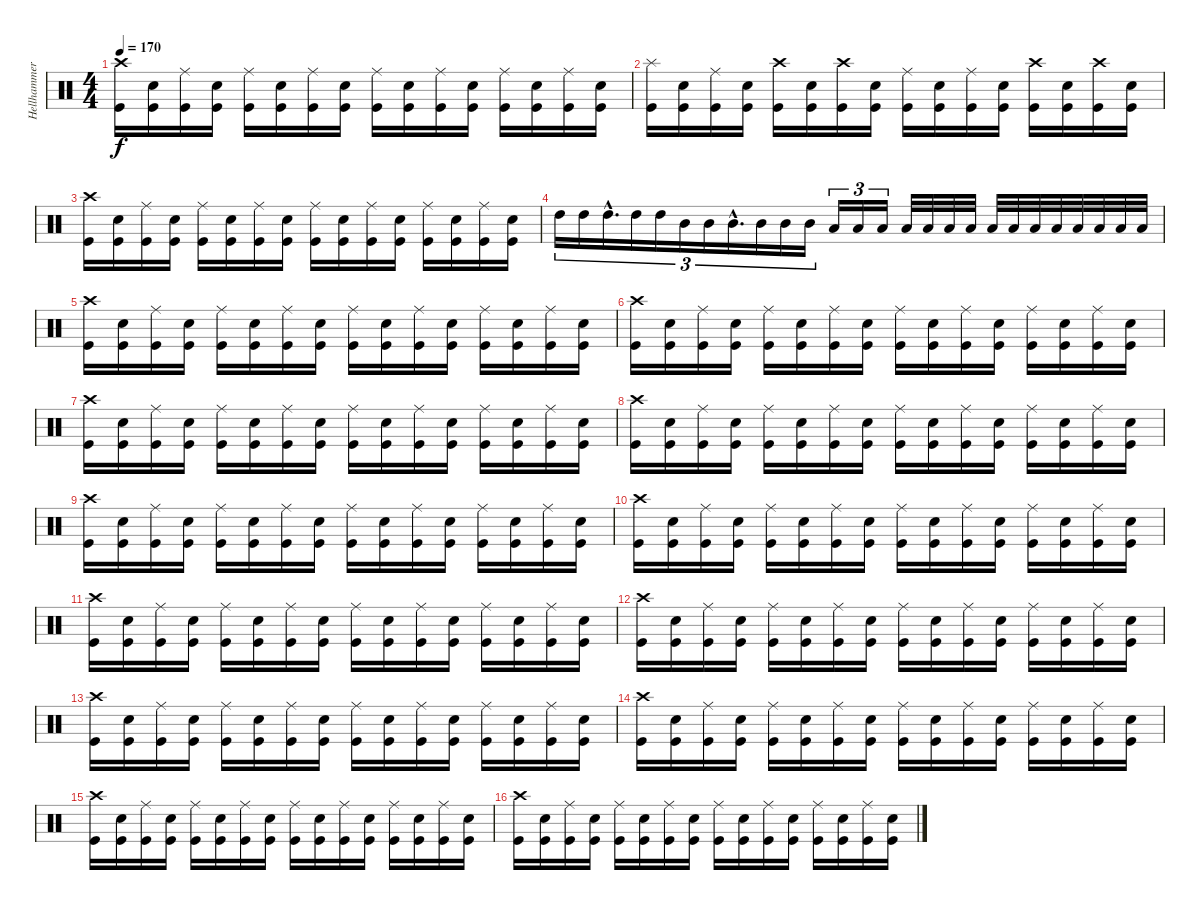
\track ("Hellhammer" "Hellhammer") {instrument percussion}
\staff {score}
\articulation defaults
\ts (4 4)
\tempo 170
\clef neutral
\ks c
("Crash high (hit)" "Kick (hit)").16{dy f} ("Electric Snare (hit)" "Kick (hit)").16 ("Ride (middle)" "Kick (hit)").16 ("Electric Snare (hit)" "Kick (hit)").16 ("Ride (middle)" "Kick (hit)").16 ("Electric Snare (hit)" "Kick (hit)").16 ("Ride (middle)" "Kick (hit)").16 ("Electric Snare (hit)" "Kick (hit)").16 ("Ride (middle)" "Kick (hit)").16 ("Electric Snare (hit)" "Kick (hit)").16 ("Ride (middle)" "Kick (hit)").16 ("Electric Snare (hit)" "Kick (hit)").16 ("Ride (middle)" "Kick (hit)").16 ("Electric Snare (hit)" "Kick (hit)").16 ("Ride (middle)" "Kick (hit)").16 ("Electric Snare (hit)" "Kick (hit)").16 |
("Splash (hit)" "Kick (hit)").16 ("Electric Snare (hit)" "Kick (hit)").16 ("Ride (middle)" "Kick (hit)").16 ("Electric Snare (hit)" "Kick (hit)").16 ("Crash high (hit)" "Kick (hit)").16 ("Electric Snare (hit)" "Kick (hit)").16 ("Crash high (hit)" "Kick (hit)").16 ("Electric Snare (hit)" "Kick (hit)").16 ("Ride (middle)" "Kick (hit)").16 ("Electric Snare (hit)" "Kick (hit)").16 ("Ride (middle)" "Kick (hit)").16 ("Electric Snare (hit)" "Kick (hit)").16 ("Crash high (hit)" "Kick (hit)").16 ("Electric Snare (hit)" "Kick (hit)").16 ("Crash high (hit)" "Kick (hit)").16 ("Electric Snare (hit)" "Kick (hit)").16 |
("Crash high (hit)" "Kick (hit)").16 ("Electric Snare (hit)" "Kick (hit)").16 ("Ride (middle)" "Kick (hit)").16 ("Electric Snare (hit)" "Kick (hit)").16 ("Ride (middle)" "Kick (hit)").16 ("Electric Snare (hit)" "Kick (hit)").16 ("Ride (middle)" "Kick (hit)").16 ("Electric Snare (hit)" "Kick (hit)").16 ("Ride (middle)" "Kick (hit)").16 ("Electric Snare (hit)" "Kick (hit)").16 ("Ride (middle)" "Kick (hit)").16 ("Electric Snare (hit)" "Kick (hit)").16 ("Ride (middle)" "Kick (hit)").16 ("Electric Snare (hit)" "Kick (hit)").16 ("Ride (middle)" "Kick (hit)").16 ("Electric Snare (hit)" "Kick (hit)").16 |
"High Tom (hit)".16{tu (3 2)} "High Tom (hit)".16{tu (3 2)} "High Tom (hit)"{hac}.16{d tu (3 2)} "High Tom (hit)".16{tu (3 2)} "High Tom (hit)".16{tu (3 2)} "Mid Tom (hit)".16{tu (3 2)} "Mid Tom (hit)".16{tu (3 2)} "Mid Tom (hit)"{hac}.16{d tu (3 2)} "Mid Tom (hit)".16{tu (3 2)} "Mid Tom (hit)".16{tu (3 2)} "Mid Tom (hit)".16{tu (3 2)} "Low Tom (hit)".16{tu (3 2)} "Low Tom (hit)".16{tu (3 2)} "Low Tom (hit)".16{tu (3 2)} "Low Tom (hit)".32 "Low Tom (hit)".32 "Low Tom (hit)".32 "Low Tom (hit)".32 "Low Tom (hit)".32 "Low Tom (hit)".32 "Low Tom (hit)".32 "Low Tom (hit)".32 "Low Tom (hit)".32 "Low Tom (hit)".32 "Low Tom (hit)".32 "Low Tom (hit)".32 |
("Crash high (hit)" "Kick (hit)").16 ("Electric Snare (hit)" "Kick (hit)").16 ("Ride (middle)" "Kick (hit)").16 ("Electric Snare (hit)" "Kick (hit)").16 ("Ride (middle)" "Kick (hit)").16 ("Electric Snare (hit)" "Kick (hit)").16 ("Ride (middle)" "Kick (hit)").16 ("Electric Snare (hit)" "Kick (hit)").16 ("Ride (middle)" "Kick (hit)").16 ("Electric Snare (hit)" "Kick (hit)").16 ("Ride (middle)" "Kick (hit)").16 ("Electric Snare (hit)" "Kick (hit)").16 ("Ride (middle)" "Kick (hit)").16 ("Electric Snare (hit)" "Kick (hit)").16 ("Ride (middle)" "Kick (hit)").16 ("Electric Snare (hit)" "Kick (hit)").16 |
("Crash high (hit)" "Kick (hit)").16 ("Electric Snare (hit)" "Kick (hit)").16 ("Ride (middle)" "Kick (hit)").16 ("Electric Snare (hit)" "Kick (hit)").16 ("Ride (middle)" "Kick (hit)").16 ("Electric Snare (hit)" "Kick (hit)").16 ("Ride (middle)" "Kick (hit)").16 ("Electric Snare (hit)" "Kick (hit)").16 ("Ride (middle)" "Kick (hit)").16 ("Electric Snare (hit)" "Kick (hit)").16 ("Ride (middle)" "Kick (hit)").16 ("Electric Snare (hit)" "Kick (hit)").16 ("Ride (middle)" "Kick (hit)").16 ("Electric Snare (hit)" "Kick (hit)").16 ("Ride (middle)" "Kick (hit)").16 ("Electric Snare (hit)" "Kick (hit)").16 |
("Crash high (hit)" "Kick (hit)").16 ("Electric Snare (hit)" "Kick (hit)").16 ("Ride (middle)" "Kick (hit)").16 ("Electric Snare (hit)" "Kick (hit)").16 ("Ride (middle)" "Kick (hit)").16 ("Electric Snare (hit)" "Kick (hit)").16 ("Ride (middle)" "Kick (hit)").16 ("Electric Snare (hit)" "Kick (hit)").16 ("Ride (middle)" "Kick (hit)").16 ("Electric Snare (hit)" "Kick (hit)").16 ("Ride (middle)" "Kick (hit)").16 ("Electric Snare (hit)" "Kick (hit)").16 ("Ride (middle)" "Kick (hit)").16 ("Electric Snare (hit)" "Kick (hit)").16 ("Ride (middle)" "Kick (hit)").16 ("Electric Snare (hit)" "Kick (hit)").16 |
("Crash high (hit)" "Kick (hit)").16 ("Electric Snare (hit)" "Kick (hit)").16 ("Ride (middle)" "Kick (hit)").16 ("Electric Snare (hit)" "Kick (hit)").16 ("Ride (middle)" "Kick (hit)").16 ("Electric Snare (hit)" "Kick (hit)").16 ("Ride (middle)" "Kick (hit)").16 ("Electric Snare (hit)" "Kick (hit)").16 ("Ride (middle)" "Kick (hit)").16 ("Electric Snare (hit)" "Kick (hit)").16 ("Ride (middle)" "Kick (hit)").16 ("Electric Snare (hit)" "Kick (hit)").16 ("Ride (middle)" "Kick (hit)").16 ("Electric Snare (hit)" "Kick (hit)").16 ("Ride (middle)" "Kick (hit)").16 ("Electric Snare (hit)" "Kick (hit)").16 |
("Crash high (hit)" "Kick (hit)").16 ("Electric Snare (hit)" "Kick (hit)").16 ("Ride (middle)" "Kick (hit)").16 ("Electric Snare (hit)" "Kick (hit)").16 ("Ride (middle)" "Kick (hit)").16 ("Electric Snare (hit)" "Kick (hit)").16 ("Ride (middle)" "Kick (hit)").16 ("Electric Snare (hit)" "Kick (hit)").16 ("Ride (middle)" "Kick (hit)").16 ("Electric Snare (hit)" "Kick (hit)").16 ("Ride (middle)" "Kick (hit)").16 ("Electric Snare (hit)" "Kick (hit)").16 ("Ride (middle)" "Kick (hit)").16 ("Electric Snare (hit)" "Kick (hit)").16 ("Ride (middle)" "Kick (hit)").16 ("Electric Snare (hit)" "Kick (hit)").16 |
("Crash high (hit)" "Kick (hit)").16 ("Electric Snare (hit)" "Kick (hit)").16 ("Ride (middle)" "Kick (hit)").16 ("Electric Snare (hit)" "Kick (hit)").16 ("Ride (middle)" "Kick (hit)").16 ("Electric Snare (hit)" "Kick (hit)").16 ("Ride (middle)" "Kick (hit)").16 ("Electric Snare (hit)" "Kick (hit)").16 ("Ride (middle)" "Kick (hit)").16 ("Electric Snare (hit)" "Kick (hit)").16 ("Ride (middle)" "Kick (hit)").16 ("Electric Snare (hit)" "Kick (hit)").16 ("Ride (middle)" "Kick (hit)").16 ("Electric Snare (hit)" "Kick (hit)").16 ("Ride (middle)" "Kick (hit)").16 ("Electric Snare (hit)" "Kick (hit)").16 |
("Crash high (hit)" "Kick (hit)").16 ("Electric Snare (hit)" "Kick (hit)").16 ("Ride (middle)" "Kick (hit)").16 ("Electric Snare (hit)" "Kick (hit)").16 ("Ride (middle)" "Kick (hit)").16 ("Electric Snare (hit)" "Kick (hit)").16 ("Ride (middle)" "Kick (hit)").16 ("Electric Snare (hit)" "Kick (hit)").16 ("Ride (middle)" "Kick (hit)").16 ("Electric Snare (hit)" "Kick (hit)").16 ("Ride (middle)" "Kick (hit)").16 ("Electric Snare (hit)" "Kick (hit)").16 ("Ride (middle)" "Kick (hit)").16 ("Electric Snare (hit)" "Kick (hit)").16 ("Ride (middle)" "Kick (hit)").16 ("Electric Snare (hit)" "Kick (hit)").16 |
("Crash high (hit)" "Kick (hit)").16 ("Electric Snare (hit)" "Kick (hit)").16 ("Ride (middle)" "Kick (hit)").16 ("Electric Snare (hit)" "Kick (hit)").16 ("Ride (middle)" "Kick (hit)").16 ("Electric Snare (hit)" "Kick (hit)").16 ("Ride (middle)" "Kick (hit)").16 ("Electric Snare (hit)" "Kick (hit)").16 ("Ride (middle)" "Kick (hit)").16 ("Electric Snare (hit)" "Kick (hit)").16 ("Ride (middle)" "Kick (hit)").16 ("Electric Snare (hit)" "Kick (hit)").16 ("Ride (middle)" "Kick (hit)").16 ("Electric Snare (hit)" "Kick (hit)").16 ("Ride (middle)" "Kick (hit)").16 ("Electric Snare (hit)" "Kick (hit)").16 |
("Crash high (hit)" "Kick (hit)").16 ("Electric Snare (hit)" "Kick (hit)").16 ("Ride (middle)" "Kick (hit)").16 ("Electric Snare (hit)" "Kick (hit)").16 ("Ride (middle)" "Kick (hit)").16 ("Electric Snare (hit)" "Kick (hit)").16 ("Ride (middle)" "Kick (hit)").16 ("Electric Snare (hit)" "Kick (hit)").16 ("Ride (middle)" "Kick (hit)").16 ("Electric Snare (hit)" "Kick (hit)").16 ("Ride (middle)" "Kick (hit)").16 ("Electric Snare (hit)" "Kick (hit)").16 ("Ride (middle)" "Kick (hit)").16 ("Electric Snare (hit)" "Kick (hit)").16 ("Ride (middle)" "Kick (hit)").16 ("Electric Snare (hit)" "Kick (hit)").16 |
("Crash high (hit)" "Kick (hit)").16 ("Electric Snare (hit)" "Kick (hit)").16 ("Ride (middle)" "Kick (hit)").16 ("Electric Snare (hit)" "Kick (hit)").16 ("Ride (middle)" "Kick (hit)").16 ("Electric Snare (hit)" "Kick (hit)").16 ("Ride (middle)" "Kick (hit)").16 ("Electric Snare (hit)" "Kick (hit)").16 ("Ride (middle)" "Kick (hit)").16 ("Electric Snare (hit)" "Kick (hit)").16 ("Ride (middle)" "Kick (hit)").16 ("Electric Snare (hit)" "Kick (hit)").16 ("Ride (middle)" "Kick (hit)").16 ("Electric Snare (hit)" "Kick (hit)").16 ("Ride (middle)" "Kick (hit)").16 ("Electric Snare (hit)" "Kick (hit)").16 |
("Crash high (hit)" "Kick (hit)").16 ("Electric Snare (hit)" "Kick (hit)").16 ("Ride (middle)" "Kick (hit)").16 ("Electric Snare (hit)" "Kick (hit)").16 ("Ride (middle)" "Kick (hit)").16 ("Electric Snare (hit)" "Kick (hit)").16 ("Ride (middle)" "Kick (hit)").16 ("Electric Snare (hit)" "Kick (hit)").16 ("Ride (middle)" "Kick (hit)").16 ("Electric Snare (hit)" "Kick (hit)").16 ("Ride (middle)" "Kick (hit)").16 ("Electric Snare (hit)" "Kick (hit)").16 ("Ride (middle)" "Kick (hit)").16 ("Electric Snare (hit)" "Kick (hit)").16 ("Ride (middle)" "Kick (hit)").16 ("Electric Snare (hit)" "Kick (hit)").16 |
("Crash high (hit)" "Kick (hit)").16 ("Electric Snare (hit)" "Kick (hit)").16 ("Ride (middle)" "Kick (hit)").16 ("Electric Snare (hit)" "Kick (hit)").16 ("Ride (middle)" "Kick (hit)").16 ("Electric Snare (hit)" "Kick (hit)").16 ("Ride (middle)" "Kick (hit)").16 ("Electric Snare (hit)" "Kick (hit)").16 ("Ride (middle)" "Kick (hit)").16 ("Electric Snare (hit)" "Kick (hit)").16 ("Ride (middle)" "Kick (hit)").16 ("Electric Snare (hit)" "Kick (hit)").16 ("Ride (middle)" "Kick (hit)").16 ("Electric Snare (hit)" "Kick (hit)").16 ("Ride (middle)" "Kick (hit)").16 ("Electric Snare (hit)" "Kick (hit)").16
